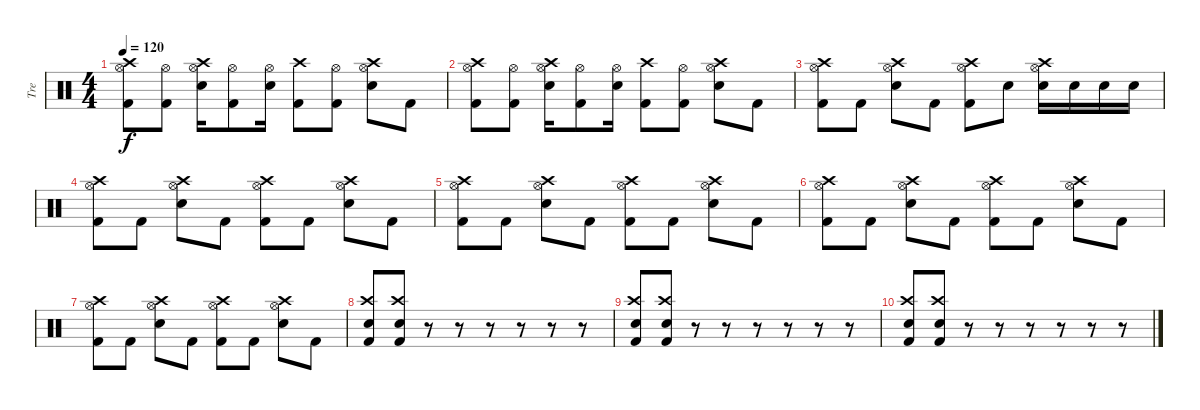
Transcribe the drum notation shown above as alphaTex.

\track ("Tre" "Tre") {instrument percussion}
\staff {score}
\articulation defaults
\ts (4 4)
\tempo 120
\clef neutral
\ks c
("Hi-Hat (open)" "Kick (hit) 2" "Crash high (hit)").8{dy f} ("Hi-Hat (open)" "Kick (hit) 2").8 ("Hi-Hat (open)" "Electric Snare (hit)" "Crash high (hit)").16 ("Hi-Hat (open)" "Kick (hit) 2").8 ("Hi-Hat (open)" "Electric Snare (hit)").16 ("Kick (hit) 2" "Crash high (hit)").8 ("Hi-Hat (open)" "Kick (hit) 2").8 ("Hi-Hat (open)" "Electric Snare (hit)" "Crash high (hit)").8 "Kick (hit) 2".8 |
("Hi-Hat (open)" "Kick (hit) 2" "Crash high (hit)").8 ("Hi-Hat (open)" "Kick (hit) 2").8 ("Hi-Hat (open)" "Electric Snare (hit)" "Crash high (hit)").16 ("Hi-Hat (open)" "Kick (hit) 2").8 ("Hi-Hat (open)" "Electric Snare (hit)").16 ("Kick (hit) 2" "Crash high (hit)").8 ("Hi-Hat (open)" "Kick (hit) 2").8 ("Hi-Hat (open)" "Electric Snare (hit)" "Crash high (hit)").8 "Kick (hit) 2".8 |
("Hi-Hat (open)" "Kick (hit) 2" "Crash high (hit)").8 "Kick (hit) 2".8 ("Hi-Hat (open)" "Electric Snare (hit)" "Crash high (hit)").8 "Kick (hit) 2".8 ("Hi-Hat (open)" "Kick (hit) 2" "Crash high (hit)").8 "Electric Snare (hit)".8 ("Hi-Hat (open)" "Electric Snare (hit)" "Crash high (hit)").16 "Electric Snare (hit)".16 "Electric Snare (hit)".16 "Electric Snare (hit)".16 |
("Hi-Hat (open)" "Kick (hit) 2" "Crash high (hit)").8 "Kick (hit) 2".8 ("Hi-Hat (open)" "Electric Snare (hit)" "Crash high (hit)").8 "Kick (hit) 2".8 ("Hi-Hat (open)" "Kick (hit) 2" "Crash high (hit)").8 "Kick (hit) 2".8 ("Hi-Hat (open)" "Electric Snare (hit)" "Crash high (hit)").8 "Kick (hit) 2".8 |
("Hi-Hat (open)" "Kick (hit) 2" "Crash high (hit)").8 "Kick (hit) 2".8 ("Hi-Hat (open)" "Electric Snare (hit)" "Crash high (hit)").8 "Kick (hit) 2".8 ("Hi-Hat (open)" "Kick (hit) 2" "Crash high (hit)").8 "Kick (hit) 2".8 ("Hi-Hat (open)" "Electric Snare (hit)" "Crash high (hit)").8 "Kick (hit) 2".8 |
("Hi-Hat (open)" "Kick (hit) 2" "Crash high (hit)").8 "Kick (hit) 2".8 ("Hi-Hat (open)" "Electric Snare (hit)" "Crash high (hit)").8 "Kick (hit) 2".8 ("Hi-Hat (open)" "Kick (hit) 2" "Crash high (hit)").8 "Kick (hit) 2".8 ("Hi-Hat (open)" "Electric Snare (hit)" "Crash high (hit)").8 "Kick (hit) 2".8 |
("Hi-Hat (open)" "Kick (hit) 2" "Crash high (hit)").8 "Kick (hit) 2".8 ("Hi-Hat (open)" "Electric Snare (hit)" "Crash high (hit)").8 "Kick (hit) 2".8 ("Hi-Hat (open)" "Kick (hit) 2" "Crash high (hit)").8 "Kick (hit) 2".8 ("Hi-Hat (open)" "Electric Snare (hit)" "Crash high (hit)").8 "Kick (hit) 2".8 |
("Kick (hit) 2" "Electric Snare (hit)" "Crash high (hit)").8 ("Kick (hit) 2" "Electric Snare (hit)" "Crash high (hit)").8 r.8 r.8 r.8 r.8 r.8 r.8 |
("Crash high (hit)" "Electric Snare (hit)" "Kick (hit) 2").8 ("Crash high (hit)" "Electric Snare (hit)" "Kick (hit) 2").8 r.8 r.8 r.8 r.8 r.8 r.8 |
("Electric Snare (hit)" "Crash high (hit)" "Kick (hit) 2").8 ("Electric Snare (hit)" "Crash high (hit)" "Kick (hit) 2").8 r.8 r.8 r.8 r.8 r.8 r.8
